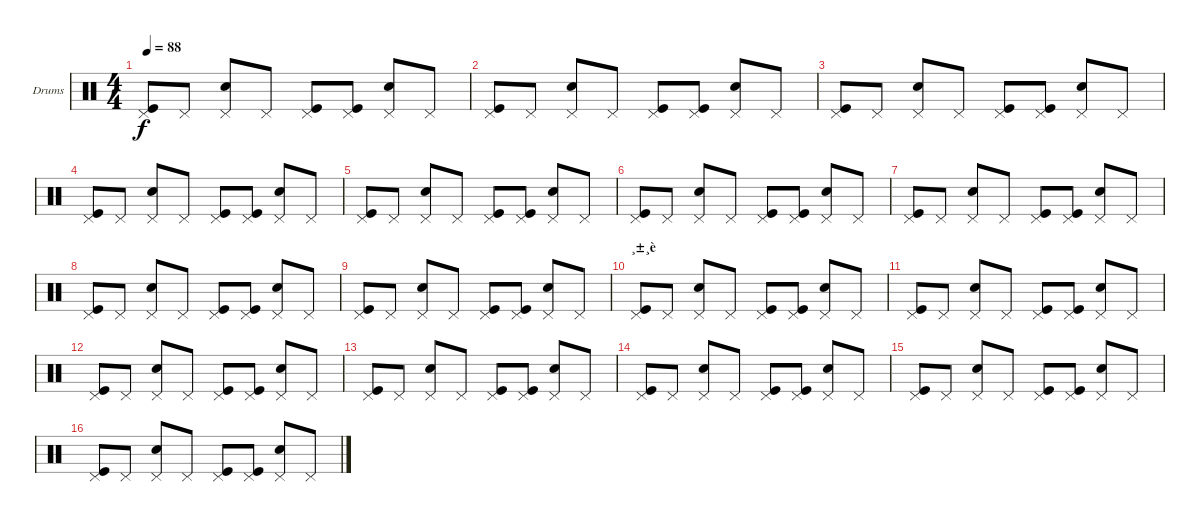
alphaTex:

\bracketExtendMode groupsimilarinstruments
\firstSystemTrackNameOrientation horizontal
\otherSystemsTrackNameOrientation horizontal
\track ("Drumkit" "Drums") {instrument percussion}
\staff {score}
\articulation defaults
\ts (4 4)
\tempo 88
\clef neutral
\ks c
("Pedal Hi-Hat (hit)" "Kick (hit)").8{dy f} "Pedal Hi-Hat (hit)".8 ("Pedal Hi-Hat (hit)" "Snare (hit) 2").8 "Pedal Hi-Hat (hit)".8 ("Pedal Hi-Hat (hit)" "Kick (hit)").8 ("Pedal Hi-Hat (hit)" "Kick (hit)").8 ("Pedal Hi-Hat (hit)" "Snare (hit) 2").8 "Pedal Hi-Hat (hit)".8 |
("Pedal Hi-Hat (hit)" "Kick (hit)").8 "Pedal Hi-Hat (hit)".8 ("Pedal Hi-Hat (hit)" "Snare (hit) 2").8 "Pedal Hi-Hat (hit)".8 ("Pedal Hi-Hat (hit)" "Kick (hit)").8 ("Pedal Hi-Hat (hit)" "Kick (hit)").8 ("Pedal Hi-Hat (hit)" "Snare (hit) 2").8 "Pedal Hi-Hat (hit)".8 |
("Pedal Hi-Hat (hit)" "Kick (hit)").8 "Pedal Hi-Hat (hit)".8 ("Pedal Hi-Hat (hit)" "Snare (hit) 2").8 "Pedal Hi-Hat (hit)".8 ("Pedal Hi-Hat (hit)" "Kick (hit)").8 ("Pedal Hi-Hat (hit)" "Kick (hit)").8 ("Pedal Hi-Hat (hit)" "Snare (hit) 2").8 "Pedal Hi-Hat (hit)".8 |
("Pedal Hi-Hat (hit)" "Kick (hit)").8 "Pedal Hi-Hat (hit)".8 ("Pedal Hi-Hat (hit)" "Snare (hit) 2").8 "Pedal Hi-Hat (hit)".8 ("Pedal Hi-Hat (hit)" "Kick (hit)").8 ("Pedal Hi-Hat (hit)" "Kick (hit)").8 ("Pedal Hi-Hat (hit)" "Snare (hit) 2").8 "Pedal Hi-Hat (hit)".8 |
("Pedal Hi-Hat (hit)" "Kick (hit)").8 "Pedal Hi-Hat (hit)".8 ("Pedal Hi-Hat (hit)" "Snare (hit) 2").8 "Pedal Hi-Hat (hit)".8 ("Pedal Hi-Hat (hit)" "Kick (hit)").8 ("Pedal Hi-Hat (hit)" "Kick (hit)").8 ("Pedal Hi-Hat (hit)" "Snare (hit) 2").8 "Pedal Hi-Hat (hit)".8 |
("Pedal Hi-Hat (hit)" "Kick (hit)").8 "Pedal Hi-Hat (hit)".8 ("Pedal Hi-Hat (hit)" "Snare (hit) 2").8 "Pedal Hi-Hat (hit)".8 ("Pedal Hi-Hat (hit)" "Kick (hit)").8 ("Pedal Hi-Hat (hit)" "Kick (hit)").8 ("Pedal Hi-Hat (hit)" "Snare (hit) 2").8 "Pedal Hi-Hat (hit)".8 |
("Pedal Hi-Hat (hit)" "Kick (hit)").8 "Pedal Hi-Hat (hit)".8 ("Pedal Hi-Hat (hit)" "Snare (hit) 2").8 "Pedal Hi-Hat (hit)".8 ("Pedal Hi-Hat (hit)" "Kick (hit)").8 ("Pedal Hi-Hat (hit)" "Kick (hit)").8 ("Pedal Hi-Hat (hit)" "Snare (hit) 2").8 "Pedal Hi-Hat (hit)".8 |
("Pedal Hi-Hat (hit)" "Kick (hit)").8 "Pedal Hi-Hat (hit)".8 ("Pedal Hi-Hat (hit)" "Snare (hit) 2").8 "Pedal Hi-Hat (hit)".8 ("Pedal Hi-Hat (hit)" "Kick (hit)").8 ("Pedal Hi-Hat (hit)" "Kick (hit)").8 ("Pedal Hi-Hat (hit)" "Snare (hit) 2").8 "Pedal Hi-Hat (hit)".8 |
("Pedal Hi-Hat (hit)" "Kick (hit)").8 "Pedal Hi-Hat (hit)".8 ("Pedal Hi-Hat (hit)" "Snare (hit) 2").8 "Pedal Hi-Hat (hit)".8 ("Pedal Hi-Hat (hit)" "Kick (hit)").8 ("Pedal Hi-Hat (hit)" "Kick (hit)").8 ("Pedal Hi-Hat (hit)" "Snare (hit) 2").8 "Pedal Hi-Hat (hit)".8 |
\section ("" "¸±¸è")
("Pedal Hi-Hat (hit)" "Kick (hit)").8 "Pedal Hi-Hat (hit)".8 ("Pedal Hi-Hat (hit)" "Snare (hit) 2").8 "Pedal Hi-Hat (hit)".8 ("Pedal Hi-Hat (hit)" "Kick (hit)").8 ("Pedal Hi-Hat (hit)" "Kick (hit)").8 ("Pedal Hi-Hat (hit)" "Snare (hit) 2").8 "Pedal Hi-Hat (hit)".8 |
("Pedal Hi-Hat (hit)" "Kick (hit)").8 "Pedal Hi-Hat (hit)".8 ("Pedal Hi-Hat (hit)" "Snare (hit) 2").8 "Pedal Hi-Hat (hit)".8 ("Pedal Hi-Hat (hit)" "Kick (hit)").8 ("Pedal Hi-Hat (hit)" "Kick (hit)").8 ("Pedal Hi-Hat (hit)" "Snare (hit) 2").8 "Pedal Hi-Hat (hit)".8 |
("Pedal Hi-Hat (hit)" "Kick (hit)").8 "Pedal Hi-Hat (hit)".8 ("Pedal Hi-Hat (hit)" "Snare (hit) 2").8 "Pedal Hi-Hat (hit)".8 ("Pedal Hi-Hat (hit)" "Kick (hit)").8 ("Pedal Hi-Hat (hit)" "Kick (hit)").8 ("Pedal Hi-Hat (hit)" "Snare (hit) 2").8 "Pedal Hi-Hat (hit)".8 |
("Pedal Hi-Hat (hit)" "Kick (hit)").8 "Pedal Hi-Hat (hit)".8 ("Pedal Hi-Hat (hit)" "Snare (hit) 2").8 "Pedal Hi-Hat (hit)".8 ("Pedal Hi-Hat (hit)" "Kick (hit)").8 ("Pedal Hi-Hat (hit)" "Kick (hit)").8 ("Pedal Hi-Hat (hit)" "Snare (hit) 2").8 "Pedal Hi-Hat (hit)".8 |
("Pedal Hi-Hat (hit)" "Kick (hit)").8 "Pedal Hi-Hat (hit)".8 ("Pedal Hi-Hat (hit)" "Snare (hit) 2").8 "Pedal Hi-Hat (hit)".8 ("Pedal Hi-Hat (hit)" "Kick (hit)").8 ("Pedal Hi-Hat (hit)" "Kick (hit)").8 ("Pedal Hi-Hat (hit)" "Snare (hit) 2").8 "Pedal Hi-Hat (hit)".8 |
("Pedal Hi-Hat (hit)" "Kick (hit)").8 "Pedal Hi-Hat (hit)".8 ("Pedal Hi-Hat (hit)" "Snare (hit) 2").8 "Pedal Hi-Hat (hit)".8 ("Pedal Hi-Hat (hit)" "Kick (hit)").8 ("Pedal Hi-Hat (hit)" "Kick (hit)").8 ("Pedal Hi-Hat (hit)" "Snare (hit) 2").8 "Pedal Hi-Hat (hit)".8 |
("Pedal Hi-Hat (hit)" "Kick (hit)").8 "Pedal Hi-Hat (hit)".8 ("Pedal Hi-Hat (hit)" "Snare (hit) 2").8 "Pedal Hi-Hat (hit)".8 ("Pedal Hi-Hat (hit)" "Kick (hit)").8 ("Pedal Hi-Hat (hit)" "Kick (hit)").8 ("Pedal Hi-Hat (hit)" "Snare (hit) 2").8 "Pedal Hi-Hat (hit)".8
